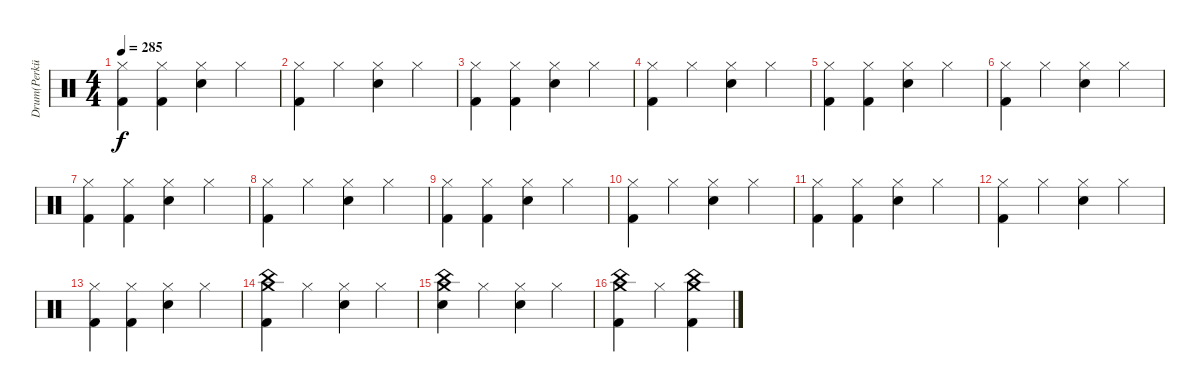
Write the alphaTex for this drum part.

\track ("Drum(Perküsyon)" "Drum(Perkü") {instrument percussion}
\staff {score}
\articulation defaults
\ts (4 4)
\tempo 285
\clef neutral
\ks c
("Hi-Hat (closed)" "Kick (hit) 2").4{dy f} ("Hi-Hat (closed)" "Kick (hit) 2").4 ("Hi-Hat (closed)" "Electric Snare (hit)").4 "Hi-Hat (closed)".4 |
("Hi-Hat (closed)" "Kick (hit) 2").4 "Hi-Hat (closed)".4 ("Hi-Hat (closed)" "Electric Snare (hit)").4 "Hi-Hat (closed)".4 |
("Hi-Hat (closed)" "Kick (hit) 2").4 ("Hi-Hat (closed)" "Kick (hit) 2").4 ("Hi-Hat (closed)" "Electric Snare (hit)").4 "Hi-Hat (closed)".4 |
("Hi-Hat (closed)" "Kick (hit) 2").4 "Hi-Hat (closed)".4 ("Hi-Hat (closed)" "Electric Snare (hit)").4 "Hi-Hat (closed)".4 |
("Hi-Hat (closed)" "Kick (hit) 2").4 ("Hi-Hat (closed)" "Kick (hit) 2").4 ("Hi-Hat (closed)" "Electric Snare (hit)").4 "Hi-Hat (closed)".4 |
("Hi-Hat (closed)" "Kick (hit) 2").4 "Hi-Hat (closed)".4 ("Hi-Hat (closed)" "Electric Snare (hit)").4 "Hi-Hat (closed)".4 |
("Hi-Hat (closed)" "Kick (hit) 2").4 ("Hi-Hat (closed)" "Kick (hit) 2").4 ("Hi-Hat (closed)" "Electric Snare (hit)").4 "Hi-Hat (closed)".4 |
("Hi-Hat (closed)" "Kick (hit) 2").4 "Hi-Hat (closed)".4 ("Hi-Hat (closed)" "Electric Snare (hit)").4 "Hi-Hat (closed)".4 |
("Hi-Hat (closed)" "Kick (hit) 2").4 ("Hi-Hat (closed)" "Kick (hit) 2").4 ("Hi-Hat (closed)" "Electric Snare (hit)").4 "Hi-Hat (closed)".4 |
("Hi-Hat (closed)" "Kick (hit) 2").4 "Hi-Hat (closed)".4 ("Hi-Hat (closed)" "Electric Snare (hit)").4 "Hi-Hat (closed)".4 |
("Hi-Hat (closed)" "Kick (hit) 2").4 ("Hi-Hat (closed)" "Kick (hit) 2").4 ("Hi-Hat (closed)" "Electric Snare (hit)").4 "Hi-Hat (closed)".4 |
("Hi-Hat (closed)" "Kick (hit) 2").4 "Hi-Hat (closed)".4 ("Hi-Hat (closed)" "Electric Snare (hit)").4 "Hi-Hat (closed)".4 |
("Hi-Hat (closed)" "Kick (hit) 2").4 ("Hi-Hat (closed)" "Kick (hit) 2").4 ("Hi-Hat (closed)" "Electric Snare (hit)").4 "Hi-Hat (closed)".4 |
("Crash medium (hit)" "China (hit)" "Kick (hit) 2").4 "Hi-Hat (closed)".4 ("Hi-Hat (closed)" "Electric Snare (hit)").4 "Hi-Hat (closed)".4 |
("Crash medium (hit)" "China (hit)" "Electric Snare (hit)").4 "Hi-Hat (closed)".4 ("Hi-Hat (closed)" "Electric Snare (hit)").4 "Hi-Hat (closed)".4 |
("Crash medium (hit)" "China (hit)" "Kick (hit) 2").4 "Hi-Hat (closed)".4 ("Crash medium (hit)" "China (hit)" "Kick (hit) 2").4
